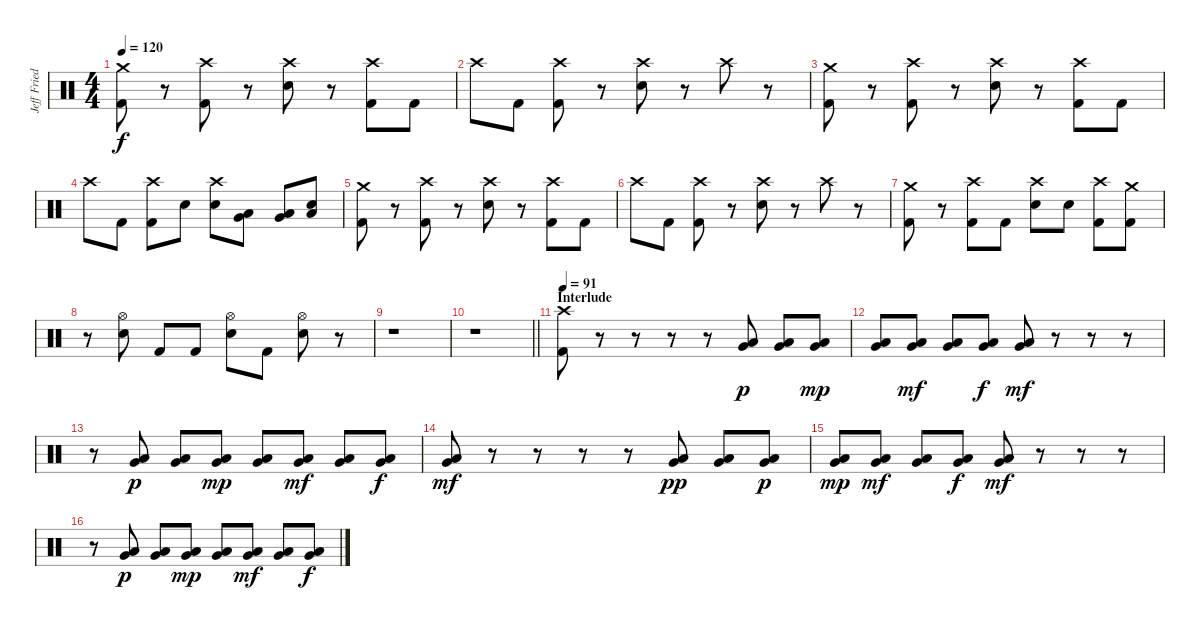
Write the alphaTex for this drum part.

\track ("Jeff Friedl" "Jeff Fried") {instrument percussion}
\staff {score}
\articulation defaults
\ts (4 4)
\tempo 120
\clef neutral
\ks c
("Crash medium (hit)" "Kick (hit) 2").8{dy f} r.8 ("Crash high (hit)" "Kick (hit) 2").8 r.8 ("Crash high (hit)" "Snare (hit) 2").8 r.8 ("Crash high (hit)" "Kick (hit) 2").8 "Kick (hit) 2".8 |
"Crash high (hit)".8 "Kick (hit) 2".8 ("Crash high (hit)" "Kick (hit) 2").8 r.8 ("Crash high (hit)" "Snare (hit) 2").8 r.8 "Crash high (hit)".8 r.8 |
("Crash medium (hit)" "Kick (hit) 2").8 r.8 ("Crash high (hit)" "Kick (hit) 2").8 r.8 ("Crash high (hit)" "Snare (hit) 2").8 r.8 ("Crash high (hit)" "Kick (hit) 2").8 "Kick (hit) 2".8 |
"Crash high (hit)".8 "Kick (hit) 2".8 ("Crash high (hit)" "Kick (hit) 2").8 "Snare (hit) 2".8 ("Crash high (hit)" "Snare (hit) 2").8 ("Low Tom (hit)" "Very Low Tom (hit)").8 ("Very Low Tom (hit)" "Low Floor Tom (hit)").8 ("Low Floor Tom (hit)" "Snare (hit) 2").8 |
("Crash medium (hit)" "Kick (hit) 2").8 r.8 ("Crash high (hit)" "Kick (hit) 2").8 r.8 ("Crash high (hit)" "Snare (hit) 2").8 r.8 ("Crash high (hit)" "Kick (hit) 2").8 "Kick (hit) 2".8 |
"Crash high (hit)".8 "Kick (hit) 2".8 ("Crash high (hit)" "Kick (hit) 2").8 r.8 ("Crash high (hit)" "Snare (hit) 2").8 r.8 "Crash high (hit)".8 r.8 |
("Crash medium (hit)" "Kick (hit) 2").8 r.8 ("Crash high (hit)" "Kick (hit) 2").8 "Kick (hit) 2".8 ("Crash high (hit)" "Snare (hit) 2").8 "Snare (hit) 2".8 ("Crash high (hit)" "Kick (hit) 2").8 ("Crash medium (hit)" "Kick (hit) 2").8 |
r.8 ("Hi-Hat (open)" "Snare (hit) 2").8 "Kick (hit) 2".8 "Kick (hit) 2".8 ("Hi-Hat (open)" "Snare (hit) 2").8 "Kick (hit) 2".8 ("Hi-Hat (open)" "Snare (hit) 2").8 r.8 |
r.1 |
\barLineRight lightlight
r.1 |
\section ("" "Interlude")
\tempo 91
("Crash high (hit)" "Kick (hit) 2").8 r.8 r.8 r.8 r.8 ("Very Low Tom (hit)" "Low Floor Tom (hit)").8{dy p} ("Very Low Tom (hit)" "Low Floor Tom (hit)").8 ("Very Low Tom (hit)" "Low Floor Tom (hit)").8{dy mp} |
("Very Low Tom (hit)" "Low Floor Tom (hit)").8 ("Very Low Tom (hit)" "Low Floor Tom (hit)").8{dy mf} ("Very Low Tom (hit)" "Low Floor Tom (hit)").8 ("Very Low Tom (hit)" "Low Floor Tom (hit)").8{dy f} ("Very Low Tom (hit)" "Low Floor Tom (hit)").8{dy mf} r.8 r.8 r.8 |
r.8 ("Very Low Tom (hit)" "Low Floor Tom (hit)").8{dy p} ("Very Low Tom (hit)" "Low Floor Tom (hit)").8 ("Very Low Tom (hit)" "Low Floor Tom (hit)").8{dy mp} ("Very Low Tom (hit)" "Low Floor Tom (hit)").8 ("Very Low Tom (hit)" "Low Floor Tom (hit)").8{dy mf} ("Very Low Tom (hit)" "Low Floor Tom (hit)").8 ("Very Low Tom (hit)" "Low Floor Tom (hit)").8{dy f} |
("Very Low Tom (hit)" "Low Floor Tom (hit)").8{dy mf} r.8 r.8 r.8 r.8 ("Very Low Tom (hit)" "Low Floor Tom (hit)").8{dy pp} ("Very Low Tom (hit)" "Low Floor Tom (hit)").8 ("Very Low Tom (hit)" "Low Floor Tom (hit)").8{dy p} |
("Very Low Tom (hit)" "Low Floor Tom (hit)").8{dy mp} ("Very Low Tom (hit)" "Low Floor Tom (hit)").8{dy mf} ("Very Low Tom (hit)" "Low Floor Tom (hit)").8 ("Very Low Tom (hit)" "Low Floor Tom (hit)").8{dy f} ("Very Low Tom (hit)" "Low Floor Tom (hit)").8{dy mf} r.8 r.8 r.8 |
r.8 ("Very Low Tom (hit)" "Low Floor Tom (hit)").8{dy p} ("Very Low Tom (hit)" "Low Floor Tom (hit)").8 ("Very Low Tom (hit)" "Low Floor Tom (hit)").8{dy mp} ("Very Low Tom (hit)" "Low Floor Tom (hit)").8 ("Very Low Tom (hit)" "Low Floor Tom (hit)").8{dy mf} ("Very Low Tom (hit)" "Low Floor Tom (hit)").8 ("Very Low Tom (hit)" "Low Floor Tom (hit)").8{dy f}
